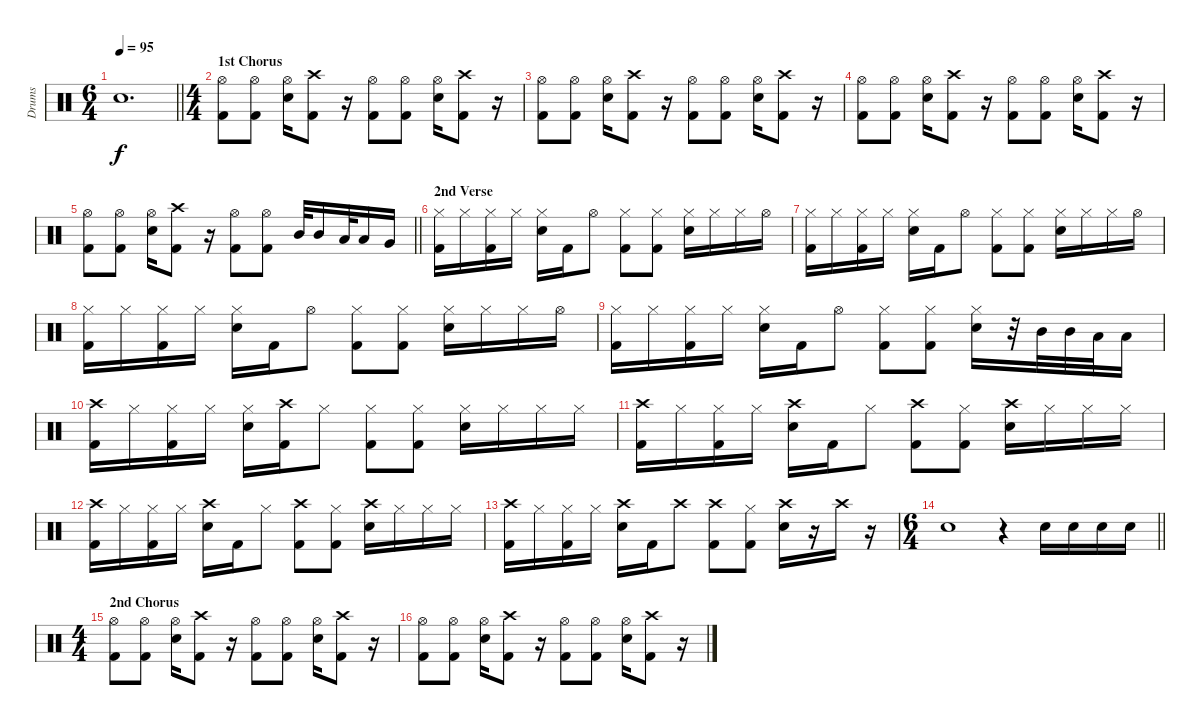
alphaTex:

\track ("Drums" "Drums") {instrument percussion}
\staff {score}
\articulation defaults
\ts (6 4)
\tempo 95
\clef neutral
\barLineRight lightlight
\ks c "Electric Snare (hit)".1{d dy f}
|
\ts (4 4)
\section ("" "1st Chorus")
("Hi-Hat (open)" "Kick (hit) 2").8 ("Hi-Hat (open)" "Kick (hit) 2").8 ("Hi-Hat (open)" "Electric Snare (hit)").16 ("Crash high (hit)" "Kick (hit) 2").8 r.16 ("Hi-Hat (open)" "Kick (hit) 2").8 ("Hi-Hat (open)" "Kick (hit) 2").8 ("Hi-Hat (open)" "Electric Snare (hit)").16 ("Crash high (hit)" "Kick (hit) 2").8 r.16 |
("Hi-Hat (open)" "Kick (hit) 2").8 ("Hi-Hat (open)" "Kick (hit) 2").8 ("Hi-Hat (open)" "Electric Snare (hit)").16 ("Crash high (hit)" "Kick (hit) 2").8 r.16 ("Hi-Hat (open)" "Kick (hit) 2").8 ("Hi-Hat (open)" "Kick (hit) 2").8 ("Hi-Hat (open)" "Electric Snare (hit)").16 ("Crash high (hit)" "Kick (hit) 2").8 r.16 |
("Hi-Hat (open)" "Kick (hit) 2").8 ("Hi-Hat (open)" "Kick (hit) 2").8 ("Hi-Hat (open)" "Electric Snare (hit)").16 ("Crash high (hit)" "Kick (hit) 2").8 r.16 ("Hi-Hat (open)" "Kick (hit) 2").8 ("Hi-Hat (open)" "Kick (hit) 2").8 ("Hi-Hat (open)" "Electric Snare (hit)").16 ("Crash high (hit)" "Kick (hit) 2").8 r.16 |
\barLineRight lightlight
("Hi-Hat (open)" "Kick (hit) 2").8 ("Hi-Hat (open)" "Kick (hit) 2").8 ("Hi-Hat (open)" "Electric Snare (hit)").16 ("Crash high (hit)" "Kick (hit) 2").8 r.16 ("Hi-Hat (open)" "Kick (hit) 2").8 ("Hi-Hat (open)" "Kick (hit) 2").8 "Mid Tom (hit)".32 "Mid Tom (hit)".16 "Low Tom (hit)".32 "Low Tom (hit)".16 "Very Low Tom (hit)".16 |
\section ("" "2nd Verse")
("Hi-Hat (closed)" "Kick (hit) 2").16 "Hi-Hat (closed)".16 ("Hi-Hat (closed)" "Kick (hit) 2").16 "Hi-Hat (closed)".16 ("Hi-Hat (closed)" "Electric Snare (hit)").16 "Kick (hit) 2".16 "Hi-Hat (open)".8 ("Hi-Hat (closed)" "Kick (hit) 2").8 ("Hi-Hat (closed)" "Kick (hit) 2").8 ("Hi-Hat (closed)" "Electric Snare (hit)").16 "Hi-Hat (closed)".16 "Hi-Hat (closed)".16 "Hi-Hat (open)".16 |
("Hi-Hat (closed)" "Kick (hit) 2").16 "Hi-Hat (closed)".16 ("Hi-Hat (closed)" "Kick (hit) 2").16 "Hi-Hat (closed)".16 ("Hi-Hat (closed)" "Electric Snare (hit)").16 "Kick (hit) 2".16 "Hi-Hat (open)".8 ("Hi-Hat (closed)" "Kick (hit) 2").8 ("Hi-Hat (closed)" "Kick (hit) 2").8 ("Hi-Hat (closed)" "Electric Snare (hit)").16 "Hi-Hat (closed)".16 "Hi-Hat (closed)".16 "Hi-Hat (open)".16 |
("Hi-Hat (closed)" "Kick (hit) 2").16 "Hi-Hat (closed)".16 ("Hi-Hat (closed)" "Kick (hit) 2").16 "Hi-Hat (closed)".16 ("Hi-Hat (closed)" "Electric Snare (hit)").16 "Kick (hit) 2".16 "Hi-Hat (open)".8 ("Hi-Hat (closed)" "Kick (hit) 2").8 ("Hi-Hat (closed)" "Kick (hit) 2").8 ("Hi-Hat (closed)" "Electric Snare (hit)").16 "Hi-Hat (closed)".16 "Hi-Hat (closed)".16 "Hi-Hat (open)".16 |
("Hi-Hat (closed)" "Kick (hit) 2").16 "Hi-Hat (closed)".16 ("Hi-Hat (closed)" "Kick (hit) 2").16 "Hi-Hat (closed)".16 ("Hi-Hat (closed)" "Electric Snare (hit)").16 "Kick (hit) 2".16 "Hi-Hat (open)".8 ("Hi-Hat (closed)" "Kick (hit) 2").8 ("Hi-Hat (closed)" "Kick (hit) 2").8 ("Hi-Hat (closed)" "Electric Snare (hit)").16 r.32 "Mid Tom (hit)".32 "Mid Tom (hit)".32 "Low Tom (hit)".32 "Low Tom (hit)".16 |
("Crash high (hit)" "Kick (hit) 2").16 "Hi-Hat (closed)".16 ("Hi-Hat (closed)" "Kick (hit) 2").16 "Hi-Hat (closed)".16 ("Hi-Hat (closed)" "Electric Snare (hit)").16 ("Crash high (hit)" "Kick (hit) 2").16 "Hi-Hat (closed)".8 ("Hi-Hat (closed)" "Kick (hit) 2").8 ("Hi-Hat (closed)" "Kick (hit) 2").8 ("Hi-Hat (closed)" "Electric Snare (hit)").16 "Hi-Hat (closed)".16 "Hi-Hat (closed)".16 "Hi-Hat (closed)".16 |
("Crash high (hit)" "Kick (hit) 2").16 "Hi-Hat (closed)".16 ("Hi-Hat (closed)" "Kick (hit) 2").16 "Hi-Hat (closed)".16 ("Crash high (hit)" "Electric Snare (hit)").16 "Kick (hit) 2".16 "Hi-Hat (closed)".8 ("Crash high (hit)" "Kick (hit) 2").8 ("Hi-Hat (closed)" "Kick (hit) 2").8 ("Crash high (hit)" "Electric Snare (hit)").16 "Hi-Hat (closed)".16 "Hi-Hat (closed)".16 "Hi-Hat (closed)".16 |
("Crash high (hit)" "Kick (hit) 2").16 "Hi-Hat (closed)".16 ("Hi-Hat (closed)" "Kick (hit) 2").16 "Hi-Hat (closed)".16 ("Crash high (hit)" "Electric Snare (hit)").16 "Kick (hit) 2".16 "Hi-Hat (closed)".8 ("Crash high (hit)" "Kick (hit) 2").8 ("Hi-Hat (closed)" "Kick (hit) 2").8 ("Crash high (hit)" "Electric Snare (hit)").16 "Hi-Hat (closed)".16 "Hi-Hat (closed)".16 "Hi-Hat (closed)".16 |
("Crash high (hit)" "Kick (hit) 2").16 "Hi-Hat (closed)".16 ("Hi-Hat (closed)" "Kick (hit) 2").16 "Hi-Hat (closed)".16 ("Crash high (hit)" "Electric Snare (hit)").16 "Kick (hit) 2".16 "Crash high (hit)".8 ("Crash high (hit)" "Kick (hit) 2").8 ("Hi-Hat (closed)" "Kick (hit) 2").8 ("Crash high (hit)" "Electric Snare (hit)").16 r.16 "Crash high (hit)".16 r.16 |
\ts (6 4)
\barLineRight lightlight "Electric Snare (hit)".1
r.4 "Electric Snare (hit)".16 "Electric Snare (hit)".16 "Electric Snare (hit)".16 "Electric Snare (hit)".16 |
\ts (4 4)
\section ("" "2nd Chorus")
("Hi-Hat (open)" "Kick (hit) 2").8 ("Hi-Hat (open)" "Kick (hit) 2").8 ("Hi-Hat (open)" "Electric Snare (hit)").16 ("Crash high (hit)" "Kick (hit) 2").8 r.16 ("Hi-Hat (open)" "Kick (hit) 2").8 ("Hi-Hat (open)" "Kick (hit) 2").8 ("Hi-Hat (open)" "Electric Snare (hit)").16 ("Crash high (hit)" "Kick (hit) 2").8 r.16 |
("Hi-Hat (open)" "Kick (hit) 2").8 ("Hi-Hat (open)" "Kick (hit) 2").8 ("Hi-Hat (open)" "Electric Snare (hit)").16 ("Crash high (hit)" "Kick (hit) 2").8 r.16 ("Hi-Hat (open)" "Kick (hit) 2").8 ("Hi-Hat (open)" "Kick (hit) 2").8 ("Hi-Hat (open)" "Electric Snare (hit)").16 ("Crash high (hit)" "Kick (hit) 2").8 r.16
